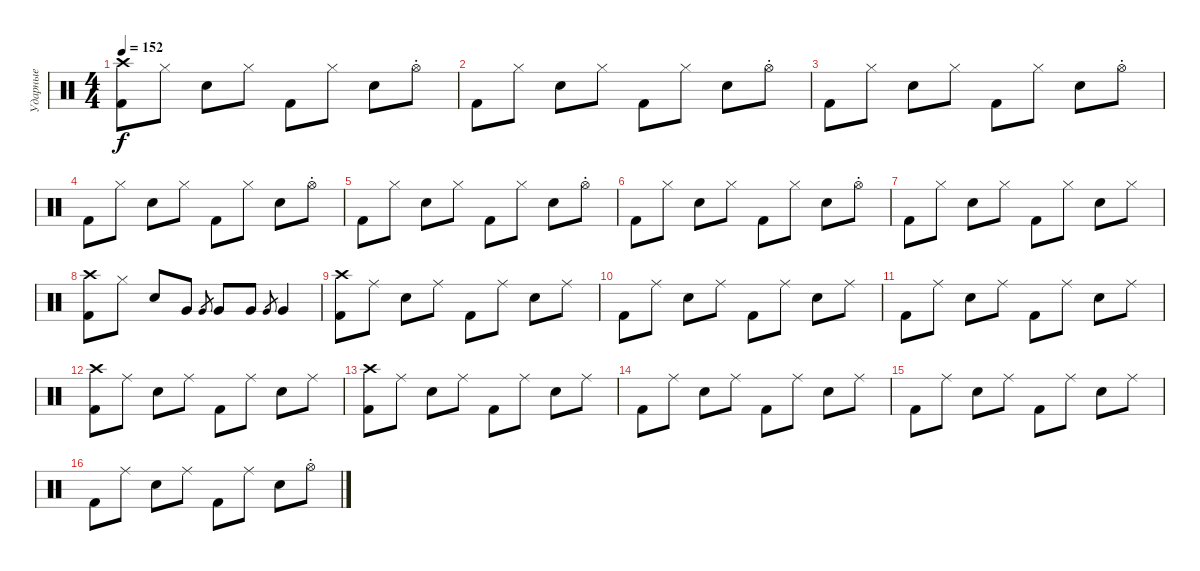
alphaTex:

\track ("Ударные" "Ударные") {instrument percussion}
\staff {score}
\articulation defaults
\ts (4 4)
\tempo 152
\clef neutral
\ks c
("Crash high (hit)" "Kick (hit) 2").8{dy f} "Hi-Hat (closed)".8 "Electric Snare (hit)".8 "Hi-Hat (closed)".8 "Kick (hit) 2".8 "Hi-Hat (closed)".8 "Electric Snare (hit)".8 "Hi-Hat (open)"{st}.8 |
"Kick (hit) 2".8 "Hi-Hat (closed)".8 "Electric Snare (hit)".8 "Hi-Hat (closed)".8 "Kick (hit) 2".8 "Hi-Hat (closed)".8 "Electric Snare (hit)".8 "Hi-Hat (open)"{st}.8 |
"Kick (hit) 2".8 "Hi-Hat (closed)".8 "Electric Snare (hit)".8 "Hi-Hat (closed)".8 "Kick (hit) 2".8 "Hi-Hat (closed)".8 "Electric Snare (hit)".8 "Hi-Hat (open)"{st}.8 |
"Kick (hit) 2".8 "Hi-Hat (closed)".8 "Electric Snare (hit)".8 "Hi-Hat (closed)".8 "Kick (hit) 2".8 "Hi-Hat (closed)".8 "Electric Snare (hit)".8 "Hi-Hat (open)"{st}.8 |
"Kick (hit) 2".8 "Hi-Hat (closed)".8 "Electric Snare (hit)".8 "Hi-Hat (closed)".8 "Kick (hit) 2".8 "Hi-Hat (closed)".8 "Electric Snare (hit)".8 "Hi-Hat (open)"{st}.8 |
"Kick (hit) 2".8 "Hi-Hat (closed)".8 "Electric Snare (hit)".8 "Hi-Hat (closed)".8 "Kick (hit) 2".8 "Hi-Hat (closed)".8 "Electric Snare (hit)".8 "Hi-Hat (open)"{st}.8 |
"Kick (hit) 2".8 "Hi-Hat (closed)".8 "Electric Snare (hit)".8 "Hi-Hat (closed)".8 "Kick (hit) 2".8 "Hi-Hat (closed)".8 "Electric Snare (hit)".8 "Hi-Hat (closed)".8 |
("Crash high (hit)" "Kick (hit) 2").8 "Hi-Hat (closed)".8 "Electric Snare (hit)".8 "Very Low Tom (hit)".8 "Very Low Tom (hit)".8{gr} "Very Low Tom (hit)".8 "Very Low Tom (hit)".8 "Very Low Tom (hit)".8{gr} "Very Low Tom (hit)".4 |
("Crash high (hit)" "Kick (hit) 2").8 "Ride (middle)".8 "Electric Snare (hit)".8 "Ride (middle)".8 "Kick (hit) 2".8 "Ride (middle)".8 "Electric Snare (hit)".8 "Ride (middle)".8 |
"Kick (hit) 2".8 "Ride (middle)".8 "Electric Snare (hit)".8 "Ride (middle)".8 "Kick (hit) 2".8 "Ride (middle)".8 "Electric Snare (hit)".8 "Ride (middle)".8 |
"Kick (hit) 2".8 "Ride (middle)".8 "Electric Snare (hit)".8 "Ride (middle)".8 "Kick (hit) 2".8 "Ride (middle)".8 "Electric Snare (hit)".8 "Ride (middle)".8 |
("Crash high (hit)" "Kick (hit) 2").8 "Ride (middle)".8 "Electric Snare (hit)".8 "Ride (middle)".8 "Kick (hit) 2".8 "Ride (middle)".8 "Electric Snare (hit)".8 "Ride (middle)".8 |
("Crash high (hit)" "Kick (hit) 2").8 "Ride (middle)".8 "Electric Snare (hit)".8 "Ride (middle)".8 "Kick (hit) 2".8 "Ride (middle)".8 "Electric Snare (hit)".8 "Ride (middle)".8 |
"Kick (hit) 2".8 "Ride (middle)".8 "Electric Snare (hit)".8 "Ride (middle)".8 "Kick (hit) 2".8 "Ride (middle)".8 "Electric Snare (hit)".8 "Ride (middle)".8 |
"Kick (hit) 2".8 "Ride (middle)".8 "Electric Snare (hit)".8 "Ride (middle)".8 "Kick (hit) 2".8 "Ride (middle)".8 "Electric Snare (hit)".8 "Ride (middle)".8 |
"Kick (hit) 2".8 "Ride (middle)".8 "Electric Snare (hit)".8 "Ride (middle)".8 "Kick (hit) 2".8 "Ride (middle)".8 "Electric Snare (hit)".8 "Hi-Hat (open)"{st}.8
